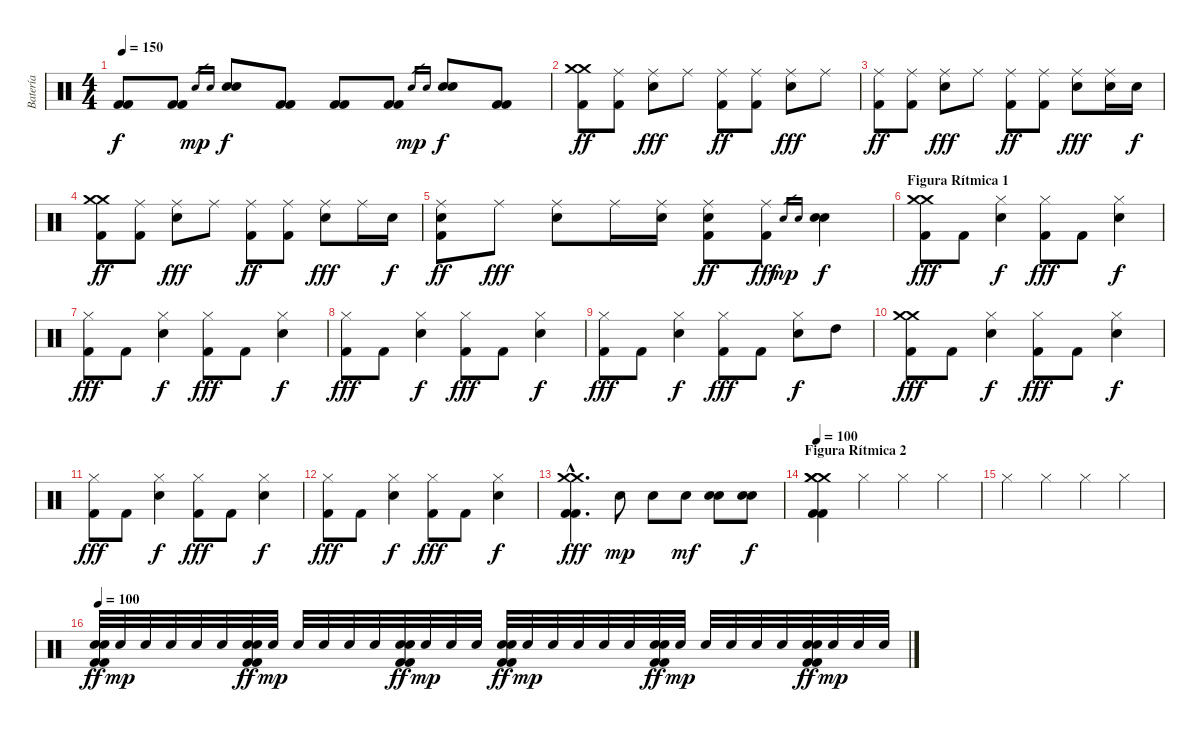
\track ("Batería" "Batería") {instrument percussion}
\staff {score}
\articulation defaults
\ts (4 4)
\tempo 150
\clef neutral
\ks c
("Kick (hit) 2" "Kick (hit) 2").8{dy f} ("Kick (hit) 2" "Kick (hit) 2").8 "Electric Snare (hit)".16{gr dy mp} "Electric Snare (hit)".16{gr} ("Electric Snare (hit)" "Electric Snare (hit)").8{dy f} ("Kick (hit) 2" "Kick (hit) 2").8 ("Kick (hit) 2" "Kick (hit) 2").8 ("Kick (hit) 2" "Kick (hit) 2").8 "Electric Snare (hit)".16{gr dy mp} "Electric Snare (hit)".16{gr} ("Electric Snare (hit)" "Electric Snare (hit)").8{dy f} ("Kick (hit) 2" "Kick (hit) 2").8 |
("Crash medium (hit)" "Crash medium (hit)" "Kick (hit) 2").8{dy ff} ("Ride (middle)" "Kick (hit) 2").8 ("Ride (middle)" "Electric Snare (hit)").8{dy fff} "Ride (middle)".8 ("Ride (middle)" "Kick (hit) 2").8{dy ff} ("Ride (middle)" "Kick (hit) 2").8 ("Ride (middle)" "Electric Snare (hit)").8{dy fff} "Ride (middle)".8 |
("Ride (middle)" "Kick (hit) 2").8{dy ff} ("Ride (middle)" "Kick (hit) 2").8 ("Ride (middle)" "Electric Snare (hit)").8{dy fff} "Ride (middle)".8 ("Ride (middle)" "Kick (hit) 2").8{dy ff} ("Ride (middle)" "Kick (hit) 2").8 ("Ride (middle)" "Electric Snare (hit)").8{dy fff} ("Ride (middle)" "Electric Snare (hit)").16 "Electric Snare (hit)".16{dy f} |
("Crash medium (hit)" "Crash medium (hit)" "Kick (hit) 2").8{dy ff} ("Ride (middle)" "Kick (hit) 2").8 ("Ride (middle)" "Electric Snare (hit)").8{dy fff} "Ride (middle)".8 ("Ride (middle)" "Kick (hit) 2").8{dy ff} ("Ride (middle)" "Kick (hit) 2").8 ("Ride (middle)" "Electric Snare (hit)").8{dy fff} "Ride (middle)".16 "Electric Snare (hit)".16{dy f} |
("Ride (middle)" "Electric Snare (hit)" "Kick (hit) 2").8{dy ff} "Ride (middle)".8{dy fff} ("Ride (middle)" "Electric Snare (hit)").8 "Ride (middle)".16 ("Ride (middle)" "Electric Snare (hit)").16 ("Ride (middle)" "Electric Snare (hit)" "Kick (hit) 2").8{dy ff} ("Ride (middle)" "Kick (hit) 2").8{dy fff} "Electric Snare (hit)".16{gr dy mp} "Electric Snare (hit)".16{gr} ("Electric Snare (hit)" "Electric Snare (hit)").4{dy f} |
\section ("" "Figura Rítmica 1")
("Crash medium (hit)" "Crash medium (hit)" "Kick (hit) 2").8{dy fff} "Kick (hit) 2".8 ("Hi-Hat (closed)" "Electric Snare (hit)").4{dy f} ("Hi-Hat (closed)" "Kick (hit) 2").8{dy fff} "Kick (hit) 2".8 ("Hi-Hat (closed)" "Electric Snare (hit)").4{dy f} |
("Hi-Hat (closed)" "Kick (hit) 2").8{dy fff} "Kick (hit) 2".8 ("Hi-Hat (closed)" "Electric Snare (hit)").4{dy f} ("Hi-Hat (closed)" "Kick (hit) 2").8{dy fff} "Kick (hit) 2".8 ("Hi-Hat (closed)" "Electric Snare (hit)").4{dy f} |
("Hi-Hat (closed)" "Kick (hit) 2").8{dy fff} "Kick (hit) 2".8 ("Hi-Hat (closed)" "Electric Snare (hit)").4{dy f} ("Hi-Hat (closed)" "Kick (hit) 2").8{dy fff} "Kick (hit) 2".8 ("Hi-Hat (closed)" "Electric Snare (hit)").4{dy f} |
("Hi-Hat (closed)" "Kick (hit) 2").8{dy fff} "Kick (hit) 2".8 ("Hi-Hat (closed)" "Electric Snare (hit)").4{dy f} ("Hi-Hat (closed)" "Kick (hit) 2").8{dy fff} "Kick (hit) 2".8 ("Hi-Hat (closed)" "Electric Snare (hit)").8{dy f} "High Tom (hit)".8 |
("Crash medium (hit)" "Crash medium (hit)" "Kick (hit) 2").8{dy fff} "Kick (hit) 2".8 ("Hi-Hat (closed)" "Electric Snare (hit)").4{dy f} ("Hi-Hat (closed)" "Kick (hit) 2").8{dy fff} "Kick (hit) 2".8 ("Hi-Hat (closed)" "Electric Snare (hit)").4{dy f} |
("Hi-Hat (closed)" "Kick (hit) 2").8{dy fff} "Kick (hit) 2".8 ("Hi-Hat (closed)" "Electric Snare (hit)").4{dy f} ("Hi-Hat (closed)" "Kick (hit) 2").8{dy fff} "Kick (hit) 2".8 ("Hi-Hat (closed)" "Electric Snare (hit)").4{dy f} |
("Hi-Hat (closed)" "Kick (hit) 2").8{dy fff} "Kick (hit) 2".8 ("Hi-Hat (closed)" "Electric Snare (hit)").4{dy f} ("Hi-Hat (closed)" "Kick (hit) 2").8{dy fff} "Kick (hit) 2".8 ("Hi-Hat (closed)" "Electric Snare (hit)").4{dy f} |
("Crash medium (hit)"{hac} "Crash medium (hit)"{hac} "Kick (hit) 2"{hac} "Kick (hit) 2"{hac}).4{d dy fff} "Electric Snare (hit)".8{dy mp} "Electric Snare (hit)".8 "Electric Snare (hit)".8{dy mf} ("Electric Snare (hit)" "Electric Snare (hit)").8 ("Electric Snare (hit)" "Electric Snare (hit)").8{dy f} |
\section ("" "Figura Rítmica 2")
\tempo 100
("Crash medium (hit)" "Crash medium (hit)" "Crash medium (hit)" "Kick (hit) 2" "Kick (hit) 2").4 "Hi-Hat (closed)".4 "Hi-Hat (closed)".4 "Hi-Hat (closed)".4 |
"Hi-Hat (closed)".4 "Hi-Hat (closed)".4 "Hi-Hat (closed)".4 "Hi-Hat (closed)".4 |
\tempo 100
("Electric Snare (hit)" "Electric Snare (hit)" "Kick (hit) 2" "Kick (hit) 2").32{dy ff} "Electric Snare (hit)".32{dy mp} "Electric Snare (hit)".32 "Electric Snare (hit)".32 "Electric Snare (hit)".32 "Electric Snare (hit)".32 ("Electric Snare (hit)" "Electric Snare (hit)" "Kick (hit) 2" "Kick (hit) 2").32{dy ff} "Electric Snare (hit)".32{dy mp} "Electric Snare (hit)".32 "Electric Snare (hit)".32 "Electric Snare (hit)".32 "Electric Snare (hit)".32 ("Electric Snare (hit)" "Electric Snare (hit)" "Kick (hit) 2" "Kick (hit) 2").32{dy ff} "Electric Snare (hit)".32{dy mp} "Electric Snare (hit)".32 "Electric Snare (hit)".32 ("Electric Snare (hit)" "Electric Snare (hit)" "Kick (hit) 2" "Kick (hit) 2").32{dy ff} "Electric Snare (hit)".32{dy mp} "Electric Snare (hit)".32 "Electric Snare (hit)".32 "Electric Snare (hit)".32 "Electric Snare (hit)".32 ("Electric Snare (hit)" "Electric Snare (hit)" "Kick (hit) 2" "Kick (hit) 2").32{dy ff} "Electric Snare (hit)".32{dy mp} "Electric Snare (hit)".32 "Electric Snare (hit)".32 "Electric Snare (hit)".32 "Electric Snare (hit)".32 ("Electric Snare (hit)" "Electric Snare (hit)" "Kick (hit) 2" "Kick (hit) 2").32{dy ff} "Electric Snare (hit)".32{dy mp} "Electric Snare (hit)".32 "Electric Snare (hit)".32
